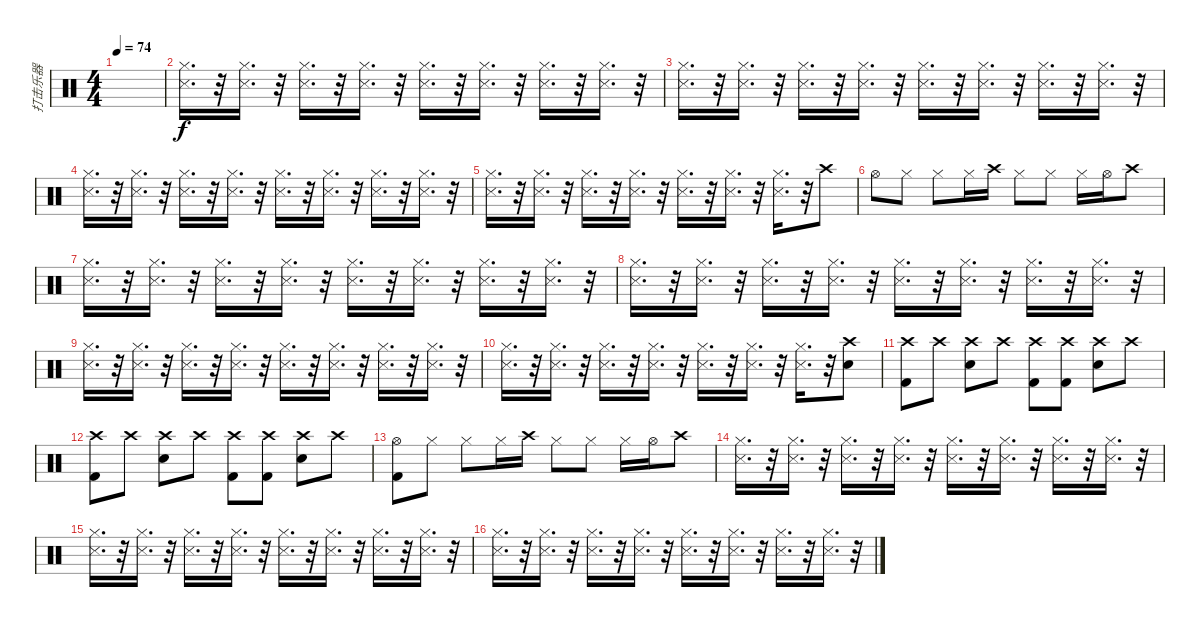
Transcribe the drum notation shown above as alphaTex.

\track ("打击乐器" "打击乐器") {instrument percussion}
\staff {score}
\articulation defaults
\ts (4 4)
\tempo 74
\clef neutral
\ks c
|
("Hi-Hat (closed)" "Snare (side stick) 3").16{d} r.32 ("Hi-Hat (closed)" "Snare (side stick) 3").16{d} r.32 ("Hi-Hat (closed)" "Snare (side stick) 3").16{d} r.32 ("Hi-Hat (closed)" "Snare (side stick) 3").16{d} r.32 ("Hi-Hat (closed)" "Snare (side stick) 3").16{d} r.32 ("Hi-Hat (closed)" "Snare (side stick) 3").16{d} r.32 ("Hi-Hat (closed)" "Snare (side stick) 3").16{d} r.32 ("Hi-Hat (closed)" "Snare (side stick) 3").16{d} r.32 |
("Hi-Hat (closed)" "Snare (side stick) 3").16{d} r.32 ("Hi-Hat (closed)" "Snare (side stick) 3").16{d} r.32 ("Hi-Hat (closed)" "Snare (side stick) 3").16{d} r.32 ("Hi-Hat (closed)" "Snare (side stick) 3").16{d} r.32 ("Hi-Hat (closed)" "Snare (side stick) 3").16{d} r.32 ("Hi-Hat (closed)" "Snare (side stick) 3").16{d} r.32 ("Hi-Hat (closed)" "Snare (side stick) 3").16{d} r.32 ("Hi-Hat (closed)" "Snare (side stick) 3").16{d} r.32 |
("Hi-Hat (closed)" "Snare (side stick) 3").16{d} r.32 ("Hi-Hat (closed)" "Snare (side stick) 3").16{d} r.32 ("Hi-Hat (closed)" "Snare (side stick) 3").16{d} r.32 ("Hi-Hat (closed)" "Snare (side stick) 3").16{d} r.32 ("Hi-Hat (closed)" "Snare (side stick) 3").16{d} r.32 ("Hi-Hat (closed)" "Snare (side stick) 3").16{d} r.32 ("Hi-Hat (closed)" "Snare (side stick) 3").16{d} r.32 ("Hi-Hat (closed)" "Snare (side stick) 3").16{d} r.32 |
("Hi-Hat (closed)" "Snare (side stick) 3").16{d} r.32 ("Hi-Hat (closed)" "Snare (side stick) 3").16{d} r.32 ("Hi-Hat (closed)" "Snare (side stick) 3").16{d} r.32 ("Hi-Hat (closed)" "Snare (side stick) 3").16{d} r.32 ("Hi-Hat (closed)" "Snare (side stick) 3").16{d} r.32 ("Hi-Hat (closed)" "Snare (side stick) 3").16{d} r.32 ("Hi-Hat (closed)" "Snare (side stick) 3").16{d} r.32 "Crash high (hit)".8 |
"Hi-Hat (open)".8 "Hi-Hat (closed)".8 "Hi-Hat (closed)".8 "Hi-Hat (closed)".16 "Crash high (hit)".16 "Hi-Hat (closed)".8 "Hi-Hat (closed)".8 "Hi-Hat (closed)".16 "Hi-Hat (open)".16 "Crash high (hit)".8 |
("Hi-Hat (closed)" "Snare (side stick) 3").16{d} r.32 ("Hi-Hat (closed)" "Snare (side stick) 3").16{d} r.32 ("Hi-Hat (closed)" "Snare (side stick) 3").16{d} r.32 ("Hi-Hat (closed)" "Snare (side stick) 3").16{d} r.32 ("Hi-Hat (closed)" "Snare (side stick) 3").16{d} r.32 ("Hi-Hat (closed)" "Snare (side stick) 3").16{d} r.32 ("Hi-Hat (closed)" "Snare (side stick) 3").16{d} r.32 ("Hi-Hat (closed)" "Snare (side stick) 3").16{d} r.32 |
("Hi-Hat (closed)" "Snare (side stick) 3").16{d} r.32 ("Hi-Hat (closed)" "Snare (side stick) 3").16{d} r.32 ("Hi-Hat (closed)" "Snare (side stick) 3").16{d} r.32 ("Hi-Hat (closed)" "Snare (side stick) 3").16{d} r.32 ("Hi-Hat (closed)" "Snare (side stick) 3").16{d} r.32 ("Hi-Hat (closed)" "Snare (side stick) 3").16{d} r.32 ("Hi-Hat (closed)" "Snare (side stick) 3").16{d} r.32 ("Hi-Hat (closed)" "Snare (side stick) 3").16{d} r.32 |
("Hi-Hat (closed)" "Snare (side stick) 3").16{d} r.32 ("Hi-Hat (closed)" "Snare (side stick) 3").16{d} r.32 ("Hi-Hat (closed)" "Snare (side stick) 3").16{d} r.32 ("Hi-Hat (closed)" "Snare (side stick) 3").16{d} r.32 ("Hi-Hat (closed)" "Snare (side stick) 3").16{d} r.32 ("Hi-Hat (closed)" "Snare (side stick) 3").16{d} r.32 ("Hi-Hat (closed)" "Snare (side stick) 3").16{d} r.32 ("Hi-Hat (closed)" "Snare (side stick) 3").16{d} r.32 |
("Hi-Hat (closed)" "Snare (side stick) 3").16{d} r.32 ("Hi-Hat (closed)" "Snare (side stick) 3").16{d} r.32 ("Hi-Hat (closed)" "Snare (side stick) 3").16{d} r.32 ("Hi-Hat (closed)" "Snare (side stick) 3").16{d} r.32 ("Hi-Hat (closed)" "Snare (side stick) 3").16{d} r.32 ("Hi-Hat (closed)" "Snare (side stick) 3").16{d} r.32 ("Hi-Hat (closed)" "Snare (side stick) 3").16{d} r.32 ("Crash high (hit)" "Snare (hit) 2").8 |
("Crash high (hit)" "Kick (hit) 2").8 "Crash high (hit)".8 ("Crash high (hit)" "Snare (hit) 2").8 "Crash high (hit)".8 ("Crash high (hit)" "Kick (hit) 2").8 ("Crash high (hit)" "Kick (hit) 2").8 ("Crash high (hit)" "Snare (hit) 2").8 "Crash high (hit)".8 |
("Crash high (hit)" "Kick (hit) 2").8 "Crash high (hit)".8 ("Crash high (hit)" "Snare (hit) 2").8 "Crash high (hit)".8 ("Crash high (hit)" "Kick (hit) 2").8 ("Crash high (hit)" "Kick (hit) 2").8 ("Crash high (hit)" "Snare (hit) 2").8 "Crash high (hit)".8 |
("Hi-Hat (open)" "Kick (hit) 2").8 "Hi-Hat (closed)".8 "Hi-Hat (closed)".8 "Hi-Hat (closed)".16 "Crash high (hit)".16 "Hi-Hat (closed)".8 "Hi-Hat (closed)".8 "Hi-Hat (closed)".16 "Hi-Hat (open)".16 "Crash high (hit)".8 |
("Hi-Hat (closed)" "Snare (side stick) 3").16{d} r.32 ("Hi-Hat (closed)" "Snare (side stick) 3").16{d} r.32 ("Hi-Hat (closed)" "Snare (side stick) 3").16{d} r.32 ("Hi-Hat (closed)" "Snare (side stick) 3").16{d} r.32 ("Hi-Hat (closed)" "Snare (side stick) 3").16{d} r.32 ("Hi-Hat (closed)" "Snare (side stick) 3").16{d} r.32 ("Hi-Hat (closed)" "Snare (side stick) 3").16{d} r.32 ("Hi-Hat (closed)" "Snare (side stick) 3").16{d} r.32 |
("Hi-Hat (closed)" "Snare (side stick) 3").16{d} r.32 ("Hi-Hat (closed)" "Snare (side stick) 3").16{d} r.32 ("Hi-Hat (closed)" "Snare (side stick) 3").16{d} r.32 ("Hi-Hat (closed)" "Snare (side stick) 3").16{d} r.32 ("Hi-Hat (closed)" "Snare (side stick) 3").16{d} r.32 ("Hi-Hat (closed)" "Snare (side stick) 3").16{d} r.32 ("Hi-Hat (closed)" "Snare (side stick) 3").16{d} r.32 ("Hi-Hat (closed)" "Snare (side stick) 3").16{d} r.32 |
("Hi-Hat (closed)" "Snare (side stick) 3").16{d} r.32 ("Hi-Hat (closed)" "Snare (side stick) 3").16{d} r.32 ("Hi-Hat (closed)" "Snare (side stick) 3").16{d} r.32 ("Hi-Hat (closed)" "Snare (side stick) 3").16{d} r.32 ("Hi-Hat (closed)" "Snare (side stick) 3").16{d} r.32 ("Hi-Hat (closed)" "Snare (side stick) 3").16{d} r.32 ("Hi-Hat (closed)" "Snare (side stick) 3").16{d} r.32 ("Hi-Hat (closed)" "Snare (side stick) 3").16{d} r.32
